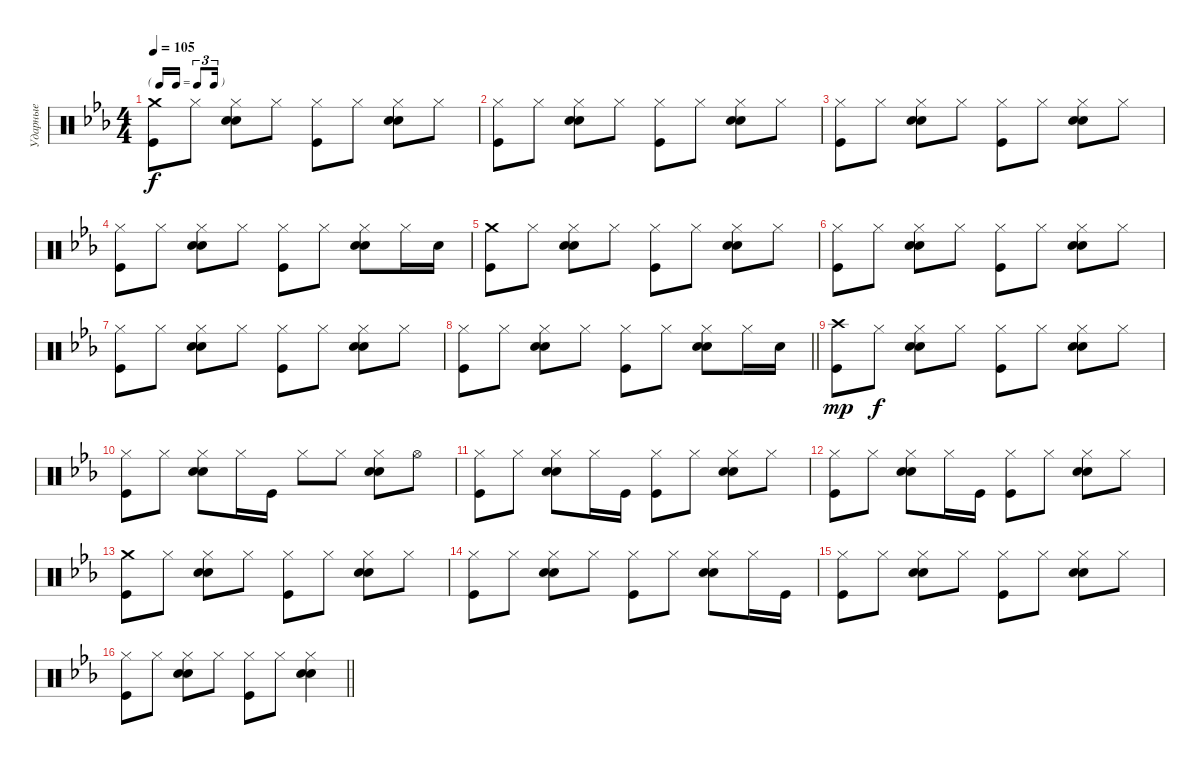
\track ("Ударные" "Ударные") {instrument percussion}
\staff {score}
\articulation defaults
\ts (4 4)
\tf triplet16th
\tempo 105
\clef neutral
\ks cminor
("Kick (hit)" "Crash medium (hit)").8{dy f} "Hi-Hat (closed)".8 ("Snare (hit) 2" "Hi-Hat (closed)" "Hand Clap (hit)").8 "Hi-Hat (closed)".8 ("Kick (hit)" "Hi-Hat (closed)").8 "Hi-Hat (closed)".8 ("Snare (hit) 2" "Hi-Hat (closed)" "Hand Clap (hit)").8 "Hi-Hat (closed)".8 |
("Kick (hit)" "Hi-Hat (closed)").8 "Hi-Hat (closed)".8 ("Snare (hit) 2" "Hi-Hat (closed)" "Hand Clap (hit)").8 "Hi-Hat (closed)".8 ("Kick (hit)" "Hi-Hat (closed)").8 "Hi-Hat (closed)".8 ("Snare (hit) 2" "Hi-Hat (closed)" "Hand Clap (hit)").8 "Hi-Hat (closed)".8 |
("Kick (hit)" "Hi-Hat (closed)").8 "Hi-Hat (closed)".8 ("Snare (hit) 2" "Hi-Hat (closed)" "Hand Clap (hit)").8 "Hi-Hat (closed)".8 ("Kick (hit)" "Hi-Hat (closed)").8 "Hi-Hat (closed)".8 ("Snare (hit) 2" "Hi-Hat (closed)" "Hand Clap (hit)").8 "Hi-Hat (closed)".8 |
("Kick (hit)" "Hi-Hat (closed)").8 "Hi-Hat (closed)".8 ("Snare (hit) 2" "Hi-Hat (closed)" "Hand Clap (hit)").8 "Hi-Hat (closed)".8 ("Kick (hit)" "Hi-Hat (closed)").8 "Hi-Hat (closed)".8 ("Snare (hit) 2" "Hi-Hat (closed)" "Hand Clap (hit)").8 "Hi-Hat (closed)".16 "Snare (hit) 2".16 |
("Kick (hit)" "Crash medium (hit)").8 "Hi-Hat (closed)".8 ("Snare (hit) 2" "Hi-Hat (closed)" "Hand Clap (hit)").8 "Hi-Hat (closed)".8 ("Kick (hit)" "Hi-Hat (closed)").8 "Hi-Hat (closed)".8 ("Snare (hit) 2" "Hi-Hat (closed)" "Hand Clap (hit)").8 "Hi-Hat (closed)".8 |
("Kick (hit)" "Hi-Hat (closed)").8 "Hi-Hat (closed)".8 ("Snare (hit) 2" "Hi-Hat (closed)" "Hand Clap (hit)").8 "Hi-Hat (closed)".8 ("Kick (hit)" "Hi-Hat (closed)").8 "Hi-Hat (closed)".8 ("Snare (hit) 2" "Hi-Hat (closed)" "Hand Clap (hit)").8 "Hi-Hat (closed)".8 |
("Kick (hit)" "Hi-Hat (closed)").8 "Hi-Hat (closed)".8 ("Snare (hit) 2" "Hi-Hat (closed)" "Hand Clap (hit)").8 "Hi-Hat (closed)".8 ("Kick (hit)" "Hi-Hat (closed)").8 "Hi-Hat (closed)".8 ("Snare (hit) 2" "Hi-Hat (closed)" "Hand Clap (hit)").8 "Hi-Hat (closed)".8 |
\barLineRight lightlight
("Kick (hit)" "Hi-Hat (closed)").8 "Hi-Hat (closed)".8 ("Snare (hit) 2" "Hi-Hat (closed)" "Hand Clap (hit)").8 "Hi-Hat (closed)".8 ("Kick (hit)" "Hi-Hat (closed)").8 "Hi-Hat (closed)".8 ("Snare (hit) 2" "Hi-Hat (closed)" "Hand Clap (hit)").8 "Hi-Hat (closed)".16 "Snare (hit) 2".16 |
("Kick (hit)" "Crash high (hit)").8{dy mp} "Hi-Hat (closed)".8{dy f} ("Snare (hit) 2" "Hi-Hat (closed)" "Hand Clap (hit)").8 "Hi-Hat (closed)".8 ("Kick (hit)" "Hi-Hat (closed)").8 "Hi-Hat (closed)".8 ("Snare (hit) 2" "Hi-Hat (closed)" "Hand Clap (hit)").8 "Hi-Hat (closed)".8 |
("Kick (hit)" "Hi-Hat (closed)").8 "Hi-Hat (closed)".8 ("Snare (hit) 2" "Hi-Hat (closed)" "Hand Clap (hit)").8 "Hi-Hat (closed)".16 "Kick (hit)".16 "Hi-Hat (closed)".8 "Hi-Hat (closed)".8 ("Snare (hit) 2" "Hi-Hat (closed)" "Hand Clap (hit)").8 "Hi-Hat (open)".8 |
("Kick (hit)" "Hi-Hat (closed)").8 "Hi-Hat (closed)".8 ("Snare (hit) 2" "Hi-Hat (closed)" "Hand Clap (hit)").8 "Hi-Hat (closed)".16 "Kick (hit)".16 ("Kick (hit)" "Hi-Hat (closed)").8 "Hi-Hat (closed)".8 ("Snare (hit) 2" "Hi-Hat (closed)" "Hand Clap (hit)").8 "Hi-Hat (closed)".8 |
("Kick (hit)" "Hi-Hat (closed)").8 "Hi-Hat (closed)".8 ("Snare (hit) 2" "Hi-Hat (closed)" "Hand Clap (hit)").8 "Hi-Hat (closed)".16 "Kick (hit)".16 ("Kick (hit)" "Hi-Hat (closed)").8 "Hi-Hat (closed)".8 ("Snare (hit) 2" "Hi-Hat (closed)" "Hand Clap (hit)").8 "Hi-Hat (closed)".8 |
("Kick (hit)" "Crash medium (hit)").8 "Hi-Hat (closed)".8 ("Snare (hit) 2" "Hi-Hat (closed)" "Hand Clap (hit)").8 "Hi-Hat (closed)".8 ("Kick (hit)" "Hi-Hat (closed)").8 "Hi-Hat (closed)".8 ("Snare (hit) 2" "Hi-Hat (closed)" "Hand Clap (hit)").8 "Hi-Hat (closed)".8 |
("Kick (hit)" "Hi-Hat (closed)").8 "Hi-Hat (closed)".8 ("Snare (hit) 2" "Hi-Hat (closed)" "Hand Clap (hit)").8 "Hi-Hat (closed)".8 ("Kick (hit)" "Hi-Hat (closed)").8 "Hi-Hat (closed)".8 ("Snare (hit) 2" "Hi-Hat (closed)" "Hand Clap (hit)").8 "Hi-Hat (closed)".16 "Kick (hit)".16 |
("Kick (hit)" "Hi-Hat (closed)").8 "Hi-Hat (closed)".8 ("Snare (hit) 2" "Hi-Hat (closed)" "Hand Clap (hit)").8 "Hi-Hat (closed)".8 ("Kick (hit)" "Hi-Hat (closed)").8 "Hi-Hat (closed)".8 ("Snare (hit) 2" "Hi-Hat (closed)" "Hand Clap (hit)").8 "Hi-Hat (closed)".8 |
\barLineRight lightlight
("Kick (hit)" "Hi-Hat (closed)").8 "Hi-Hat (closed)".8 ("Snare (hit) 2" "Hi-Hat (closed)" "Hand Clap (hit)").8 "Hi-Hat (closed)".8 ("Kick (hit)" "Hi-Hat (closed)").8 "Hi-Hat (closed)".8 ("Snare (hit) 2" "Hi-Hat (closed)" "Hand Clap (hit)").4
